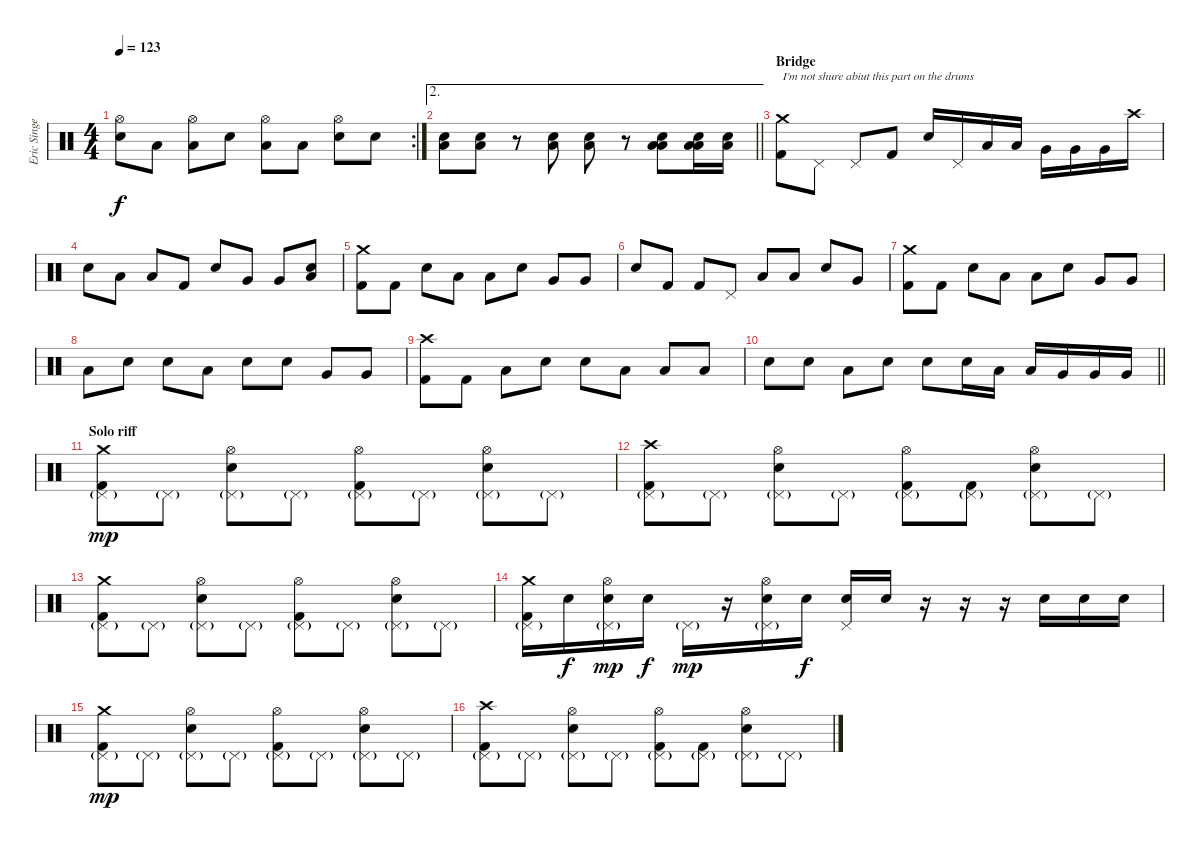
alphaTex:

\track ("Eric Singer" "Eric Singe") {instrument percussion}
\staff {score}
\articulation defaults
\rc 2
\ts (4 4)
\tempo 123
\clef neutral
\ks c
("Hi-Hat (open)" "Snare (hit) 2").8{dy f} "Low Floor Tom (hit)".8 ("Hi-Hat (open)" "Low Floor Tom (hit)").8 "Snare (hit) 2".8 ("Hi-Hat (open)" "Low Floor Tom (hit)").8 "Low Floor Tom (hit)".8 ("Hi-Hat (open)" "Snare (hit) 2").8 "Snare (hit) 2".8 |
\ae 2
\barLineRight lightlight
("Low Floor Tom (hit)" "Snare (hit) 2").8 ("Low Floor Tom (hit)" "Snare (hit) 2").8 r.8 ("Low Floor Tom (hit)" "Snare (hit) 2").8 ("Low Floor Tom (hit)" "Snare (hit) 2").8 r.8 ("Low Tom (hit)" "Low Floor Tom (hit)" "Snare (hit) 2").8 ("Low Tom (hit)" "Low Floor Tom (hit)" "Snare (hit) 2").16 ("Low Floor Tom (hit)" "Snare (hit) 2").16 |
\section ("" "Bridge")
("Crash medium (hit)" "Kick (hit) 2").8{txt "I'm not shure abiut this part on the drums"} "Pedal Hi-Hat (hit)".8 "Pedal Hi-Hat (hit)".8 "Kick (hit) 2".8 "Snare (hit) 2".16 "Pedal Hi-Hat (hit)".16 "Low Floor Tom (hit)".16 "Low Floor Tom (hit)".16 "Very Low Tom (hit)".16 "Very Low Tom (hit)".16 "Very Low Tom (hit)".16 "Crash high (hit)".16 |
"Snare (hit) 2".8 "Low Floor Tom (hit)".8 "Low Floor Tom (hit)".8 "Kick (hit) 2".8 "Snare (hit) 2".8 "Very Low Tom (hit)".8 "Very Low Tom (hit)".8 ("Low Tom (hit)" "Snare (hit) 2").8 |
("Crash medium (hit)" "Kick (hit) 2").8 "Kick (hit) 2".8 "Snare (hit) 2".8 "Low Floor Tom (hit)".8 "Low Floor Tom (hit)".8 "Snare (hit) 2".8 "Very Low Tom (hit)".8 "Very Low Tom (hit)".8 |
"Snare (hit) 2".8 "Kick (hit) 2".8 "Kick (hit) 2".8 "Pedal Hi-Hat (hit)".8 "Low Floor Tom (hit)".8 "Low Floor Tom (hit)".8 "Snare (hit) 2".8 "Very Low Tom (hit)".8 |
("Crash medium (hit)" "Kick (hit) 2").8 "Kick (hit) 2".8 "Snare (hit) 2".8 "Low Floor Tom (hit)".8 "Low Floor Tom (hit)".8 "Snare (hit) 2".8 "Very Low Tom (hit)".8 "Very Low Tom (hit)".8 |
"Low Floor Tom (hit)".8 "Snare (hit) 2".8 "Snare (hit) 2".8 "Low Floor Tom (hit)".8 "Snare (hit) 2".8 "Snare (hit) 2".8 "Very Low Tom (hit)".8 "Very Low Tom (hit)".8 |
("Crash high (hit)" "Kick (hit) 2").8 "Kick (hit) 2".8 "Low Floor Tom (hit)".8 "Snare (hit) 2".8 "Snare (hit) 2".8 "Low Floor Tom (hit)".8 "Low Floor Tom (hit)".8 "Low Floor Tom (hit)".8 |
\barLineRight lightlight "Snare (hit) 2".8 "Snare (hit) 2".8 "Low Floor Tom (hit)".8 "Snare (hit) 2".8 "Snare (hit) 2".8 "Snare (hit) 2".16 "Low Floor Tom (hit)".16 "Low Floor Tom (hit)".16 "Very Low Tom (hit)".16 "Very Low Tom (hit)".16 "Very Low Tom (hit)".16
|
\section ("" "Solo riff")
("Crash medium (hit)" "Pedal Hi-Hat (hit)"{g} "Kick (hit) 2").8{dy mp} "Pedal Hi-Hat (hit)"{g}.8 ("Hi-Hat (open)" "Pedal Hi-Hat (hit)"{g} "Snare (hit) 2").8 "Pedal Hi-Hat (hit)"{g}.8 ("Hi-Hat (open)" "Pedal Hi-Hat (hit)"{g} "Kick (hit) 2").8 "Pedal Hi-Hat (hit)"{g}.8 ("Hi-Hat (open)" "Pedal Hi-Hat (hit)"{g} "Snare (hit) 2").8 "Pedal Hi-Hat (hit)"{g}.8 |
("Crash high (hit)" "Pedal Hi-Hat (hit)"{g} "Kick (hit) 2").8 "Pedal Hi-Hat (hit)"{g}.8 ("Hi-Hat (open)" "Pedal Hi-Hat (hit)"{g} "Snare (hit) 2").8 "Pedal Hi-Hat (hit)"{g}.8 ("Hi-Hat (open)" "Pedal Hi-Hat (hit)"{g} "Kick (hit) 2").8 ("Pedal Hi-Hat (hit)"{g} "Kick (hit) 2").8 ("Hi-Hat (open)" "Pedal Hi-Hat (hit)"{g} "Snare (hit) 2").8 "Pedal Hi-Hat (hit)"{g}.8 |
("Crash medium (hit)" "Pedal Hi-Hat (hit)"{g} "Kick (hit) 2").8 "Pedal Hi-Hat (hit)"{g}.8 ("Hi-Hat (open)" "Pedal Hi-Hat (hit)"{g} "Snare (hit) 2").8 "Pedal Hi-Hat (hit)"{g}.8 ("Hi-Hat (open)" "Pedal Hi-Hat (hit)"{g} "Kick (hit) 2").8 "Pedal Hi-Hat (hit)"{g}.8 ("Hi-Hat (open)" "Pedal Hi-Hat (hit)"{g} "Snare (hit) 2").8 "Pedal Hi-Hat (hit)"{g}.8 |
("Crash medium (hit)" "Pedal Hi-Hat (hit)"{g} "Kick (hit) 2").16 "Snare (hit) 2".16{dy f} ("Hi-Hat (open)" "Pedal Hi-Hat (hit)"{g} "Snare (hit) 2").16{dy mp} "Snare (hit) 2".16{dy f} "Pedal Hi-Hat (hit)"{g}.16{dy mp} r.16 ("Hi-Hat (open)" "Pedal Hi-Hat (hit)"{g} "Snare (hit) 2").16 "Snare (hit) 2".16{dy f} ("Pedal Hi-Hat (hit)" "Snare (hit) 2").16 "Snare (hit) 2".16 r.16 r.16 r.16 "Snare (hit) 2".16 "Snare (hit) 2".16 "Snare (hit) 2".16 |
("Crash medium (hit)" "Pedal Hi-Hat (hit)"{g} "Kick (hit) 2").8{dy mp} "Pedal Hi-Hat (hit)"{g}.8 ("Hi-Hat (open)" "Pedal Hi-Hat (hit)"{g} "Snare (hit) 2").8 "Pedal Hi-Hat (hit)"{g}.8 ("Hi-Hat (open)" "Pedal Hi-Hat (hit)"{g} "Kick (hit) 2").8 "Pedal Hi-Hat (hit)"{g}.8 ("Hi-Hat (open)" "Pedal Hi-Hat (hit)"{g} "Snare (hit) 2").8 "Pedal Hi-Hat (hit)"{g}.8 |
("Crash high (hit)" "Pedal Hi-Hat (hit)"{g} "Kick (hit) 2").8 "Pedal Hi-Hat (hit)"{g}.8 ("Hi-Hat (open)" "Pedal Hi-Hat (hit)"{g} "Snare (hit) 2").8 "Pedal Hi-Hat (hit)"{g}.8 ("Hi-Hat (open)" "Pedal Hi-Hat (hit)"{g} "Kick (hit) 2").8 ("Pedal Hi-Hat (hit)"{g} "Kick (hit) 2").8 ("Hi-Hat (open)" "Pedal Hi-Hat (hit)"{g} "Snare (hit) 2").8 "Pedal Hi-Hat (hit)"{g}.8
